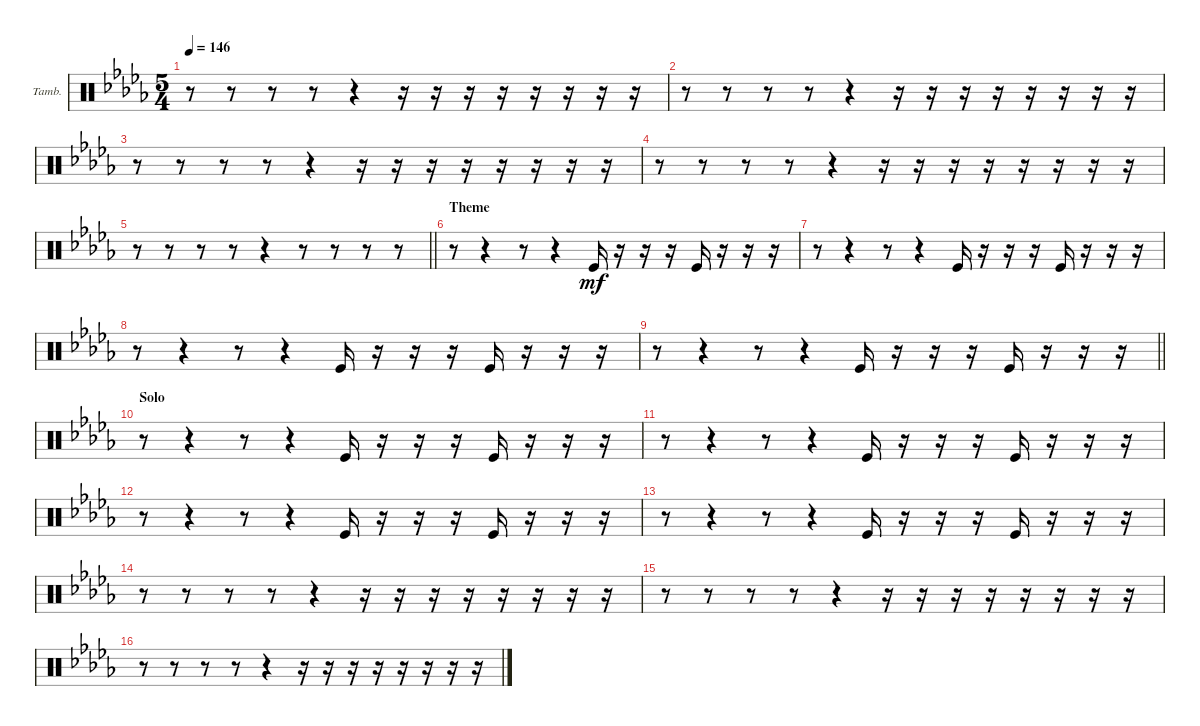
\bracketExtendMode groupsimilarinstruments
\firstSystemTrackNameOrientation horizontal
\otherSystemsTrackNameOrientation horizontal
\track ("Tambourine" "Tamb.") {instrument percussion}
\staff {score}
\articulation defaults
\ts (5 4)
\tempo 146
\clef neutral
\ks db
r.8{dy mf} r.8 r.8 r.8 r.4 r.16 r.16 r.16 r.16 r.16 r.16 r.16 r.16 |
r.8 r.8 r.8 r.8 r.4 r.16 r.16 r.16 r.16 r.16 r.16 r.16 r.16 |
r.8 r.8 r.8 r.8 r.4 r.16 r.16 r.16 r.16 r.16 r.16 r.16 r.16 |
r.8 r.8 r.8 r.8 r.4 r.16 r.16 r.16 r.16 r.16 r.16 r.16 r.16 |
\barLineRight lightlight
r.8 r.8 r.8 r.8 r.4 r.8 r.8 r.8 r.8 |
\section ("" "Theme")
r.8 r.4 r.8 r.4 "Kick (hit)".16 r.16 r.16 r.16 "Kick (hit)".16 r.16 r.16 r.16 |
r.8 r.4 r.8 r.4 "Kick (hit)".16 r.16 r.16 r.16 "Kick (hit)".16 r.16 r.16 r.16 |
r.8 r.4 r.8 r.4 "Kick (hit)".16 r.16 r.16 r.16 "Kick (hit)".16 r.16 r.16 r.16 |
\barLineRight lightlight
r.8 r.4 r.8 r.4 "Kick (hit)".16 r.16 r.16 r.16 "Kick (hit)".16 r.16 r.16 r.16 |
\section ("" "Solo")
r.8 r.4 r.8 r.4 "Kick (hit)".16 r.16 r.16 r.16 "Kick (hit)".16 r.16 r.16 r.16 |
r.8 r.4 r.8 r.4 "Kick (hit)".16 r.16 r.16 r.16 "Kick (hit)".16 r.16 r.16 r.16 |
r.8 r.4 r.8 r.4 "Kick (hit)".16 r.16 r.16 r.16 "Kick (hit)".16 r.16 r.16 r.16 |
r.8 r.4 r.8 r.4 "Kick (hit)".16 r.16 r.16 r.16 "Kick (hit)".16 r.16 r.16 r.16 |
r.8 r.8 r.8 r.8 r.4 r.16 r.16 r.16 r.16 r.16 r.16 r.16 r.16 |
r.8 r.8 r.8 r.8 r.4 r.16 r.16 r.16 r.16 r.16 r.16 r.16 r.16 |
r.8 r.8 r.8 r.8 r.4 r.16 r.16 r.16 r.16 r.16 r.16 r.16 r.16
